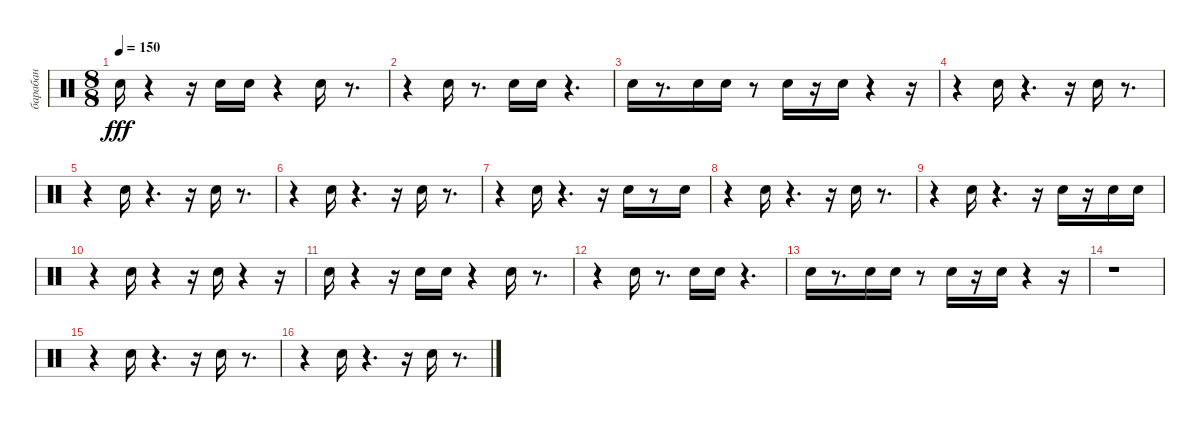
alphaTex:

\track ("барабан" "барабан") {instrument percussion}
\staff {score}
\articulation defaults
\ts (8 8)
\tempo 150
\clef neutral
\ks c "Snare (hit) 2".16{dy fff}
r.4 r.16 "Snare (hit) 2".16 "Snare (hit) 2".16 r.4 "Snare (hit) 2".16 r.8{d} |
r.4 "Snare (hit) 2".16 r.8{d} "Snare (hit) 2".16 "Snare (hit) 2".16 r.4{d} |
"Snare (hit) 2".16 r.8{d} "Snare (hit) 2".16 "Snare (hit) 2".16 r.8 "Snare (hit) 2".16 r.16 "Snare (hit) 2".16 r.4 r.16 |
r.4 "Snare (hit) 2".16 r.4{d} r.16 "Snare (hit) 2".16 r.8{d} |
r.4 "Snare (hit) 2".16 r.4{d} r.16 "Snare (hit) 2".16 r.8{d} |
r.4 "Snare (hit) 2".16 r.4{d} r.16 "Snare (hit) 2".16 r.8{d} |
r.4 "Snare (hit) 2".16 r.4{d} r.16 "Snare (hit) 2".16 r.8 "Snare (hit) 2".16 |
r.4 "Snare (hit) 2".16 r.4{d} r.16 "Snare (hit) 2".16 r.8{d} |
r.4 "Snare (hit) 2".16 r.4{d} r.16 "Snare (hit) 2".16 r.16 "Snare (hit) 2".16 "Snare (hit) 2".16 |
r.4 "Snare (hit) 2".16 r.4 r.16 "Snare (hit) 2".16 r.4 r.16 |
"Snare (hit) 2".16 r.4 r.16 "Snare (hit) 2".16 "Snare (hit) 2".16 r.4 "Snare (hit) 2".16 r.8{d} |
r.4 "Snare (hit) 2".16 r.8{d} "Snare (hit) 2".16 "Snare (hit) 2".16 r.4{d} |
"Snare (hit) 2".16 r.8{d} "Snare (hit) 2".16 "Snare (hit) 2".16 r.8 "Snare (hit) 2".16 r.16 "Snare (hit) 2".16 r.4 r.16 |
r.1 |
r.4 "Snare (hit) 2".16 r.4{d} r.16 "Snare (hit) 2".16 r.8{d} |
r.4 "Snare (hit) 2".16 r.4{d} r.16 "Snare (hit) 2".16 r.8{d}
